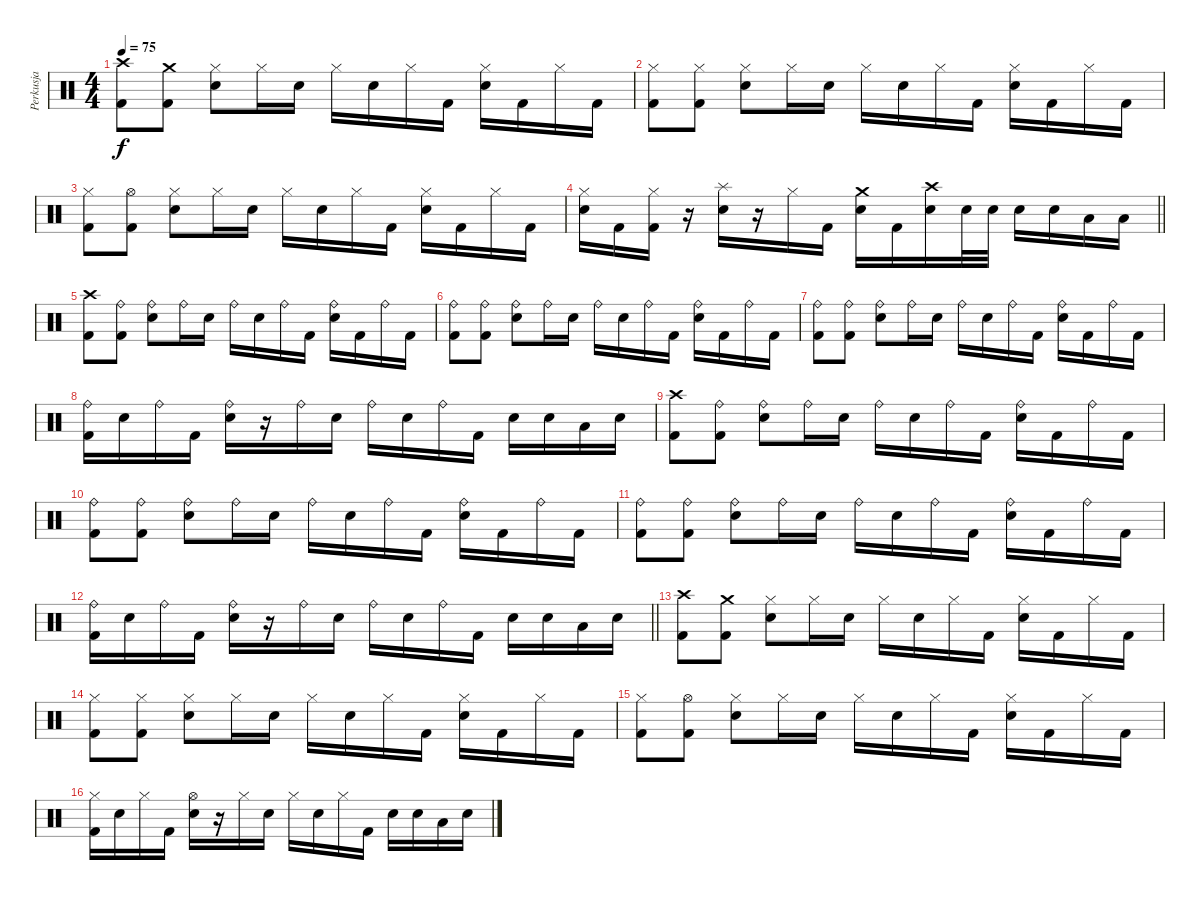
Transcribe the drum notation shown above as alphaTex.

\track ("Perkusja" "Perkusja") {instrument percussion}
\staff {score}
\articulation defaults
\ts (4 4)
\tempo 75
\clef neutral
\ks c
("Crash high (hit)" "Kick (hit) 2").8{dy f} ("Crash medium (hit)" "Kick (hit) 2").8 ("Hi-Hat (closed)" "Snare (hit) 2").8 "Hi-Hat (closed)".16 "Snare (hit) 2".16 "Hi-Hat (closed)".16 "Snare (hit) 2".16 "Hi-Hat (closed)".16 "Kick (hit) 2".16 ("Hi-Hat (closed)" "Snare (hit) 2").16 "Kick (hit) 2".16 "Hi-Hat (closed)".16 "Kick (hit) 2".16 |
("Hi-Hat (closed)" "Kick (hit) 2").8 ("Hi-Hat (closed)" "Kick (hit) 2").8 ("Hi-Hat (closed)" "Snare (hit) 2").8 "Hi-Hat (closed)".16 "Snare (hit) 2".16 "Hi-Hat (closed)".16 "Snare (hit) 2".16 "Hi-Hat (closed)".16 "Kick (hit) 2".16 ("Hi-Hat (closed)" "Snare (hit) 2").16 "Kick (hit) 2".16 "Hi-Hat (closed)".16 "Kick (hit) 2".16 |
("Hi-Hat (closed)" "Kick (hit) 2").8 ("Hi-Hat (open)" "Kick (hit) 2").8 ("Hi-Hat (closed)" "Snare (hit) 2").8 "Hi-Hat (closed)".16 "Snare (hit) 2".16 "Hi-Hat (closed)".16 "Snare (hit) 2".16 "Hi-Hat (closed)".16 "Kick (hit) 2".16 ("Hi-Hat (closed)" "Snare (hit) 2").16 "Kick (hit) 2".16 "Hi-Hat (closed)".16 "Kick (hit) 2".16 |
\barLineRight lightlight
("Hi-Hat (closed)" "Snare (hit) 2").16 "Kick (hit) 2".16 ("Hi-Hat (closed)" "Kick (hit) 2").16 r.16 ("Splash (hit)" "Snare (hit) 2").16 r.16 "Hi-Hat (closed)".16 "Kick (hit) 2".16 ("Crash medium (hit)" "Snare (hit) 2").16 "Kick (hit) 2".16 ("Crash high (hit)" "Snare (hit) 2").16 "Snare (hit) 2".32 "Snare (hit) 2".32 "Snare (hit) 2".16 "Snare (hit) 2".16 "Low Tom (hit)".16 "Low Tom (hit)".16 |
\section ("" "")
("Crash high (hit)" "Kick (hit) 2").8 ("Ride (bell)" "Kick (hit) 2").8 ("Ride (bell)" "Snare (hit) 2").8 "Ride (bell)".16 "Snare (hit) 2".16 "Ride (bell)".16 "Snare (hit) 2".16 "Ride (bell)".16 "Kick (hit) 2".16 ("Ride (bell)" "Snare (hit) 2").16 "Kick (hit) 2".16 "Ride (bell)".16 "Kick (hit) 2".16 |
("Ride (bell)" "Kick (hit) 2").8 ("Ride (bell)" "Kick (hit) 2").8 ("Ride (bell)" "Snare (hit) 2").8 "Ride (bell)".16 "Snare (hit) 2".16 "Ride (bell)".16 "Snare (hit) 2".16 "Ride (bell)".16 "Kick (hit) 2".16 ("Ride (bell)" "Snare (hit) 2").16 "Kick (hit) 2".16 "Ride (bell)".16 "Kick (hit) 2".16 |
("Ride (bell)" "Kick (hit) 2").8 ("Ride (bell)" "Kick (hit) 2").8 ("Ride (bell)" "Snare (hit) 2").8 "Ride (bell)".16 "Snare (hit) 2".16 "Ride (bell)".16 "Snare (hit) 2".16 "Ride (bell)".16 "Kick (hit) 2".16 ("Ride (bell)" "Snare (hit) 2").16 "Kick (hit) 2".16 "Ride (bell)".16 "Kick (hit) 2".16 |
("Ride (bell)" "Kick (hit) 2").16 "Snare (hit) 2".16 "Ride (bell)".16 "Kick (hit) 2".16 ("Ride (bell)" "Snare (hit) 2").16 r.16 "Ride (bell)".16 "Snare (hit) 2".16 "Ride (bell)".16 "Snare (hit) 2".16 "Ride (bell)".16 "Kick (hit) 2".16 "Snare (hit) 2".16 "Snare (hit) 2".16 "Low Tom (hit)".16 "Snare (hit) 2".16 |
("Crash high (hit)" "Kick (hit) 2").8 ("Ride (bell)" "Kick (hit) 2").8 ("Ride (bell)" "Snare (hit) 2").8 "Ride (bell)".16 "Snare (hit) 2".16 "Ride (bell)".16 "Snare (hit) 2".16 "Ride (bell)".16 "Kick (hit) 2".16 ("Ride (bell)" "Snare (hit) 2").16 "Kick (hit) 2".16 "Ride (bell)".16 "Kick (hit) 2".16 |
("Ride (bell)" "Kick (hit) 2").8 ("Ride (bell)" "Kick (hit) 2").8 ("Ride (bell)" "Snare (hit) 2").8 "Ride (bell)".16 "Snare (hit) 2".16 "Ride (bell)".16 "Snare (hit) 2".16 "Ride (bell)".16 "Kick (hit) 2".16 ("Ride (bell)" "Snare (hit) 2").16 "Kick (hit) 2".16 "Ride (bell)".16 "Kick (hit) 2".16 |
("Ride (bell)" "Kick (hit) 2").8 ("Ride (bell)" "Kick (hit) 2").8 ("Ride (bell)" "Snare (hit) 2").8 "Ride (bell)".16 "Snare (hit) 2".16 "Ride (bell)".16 "Snare (hit) 2".16 "Ride (bell)".16 "Kick (hit) 2".16 ("Ride (bell)" "Snare (hit) 2").16 "Kick (hit) 2".16 "Ride (bell)".16 "Kick (hit) 2".16 |
\barLineRight lightlight
("Ride (bell)" "Kick (hit) 2").16 "Snare (hit) 2".16 "Ride (bell)".16 "Kick (hit) 2".16 ("Ride (bell)" "Snare (hit) 2").16 r.16 "Ride (bell)".16 "Snare (hit) 2".16 "Ride (bell)".16 "Snare (hit) 2".16 "Ride (bell)".16 "Kick (hit) 2".16 "Snare (hit) 2".16 "Snare (hit) 2".16 "Low Tom (hit)".16 "Snare (hit) 2".16 |
\section ("" "")
("Crash high (hit)" "Kick (hit) 2").8 ("Crash medium (hit)" "Kick (hit) 2").8 ("Hi-Hat (closed)" "Snare (hit) 2").8 "Hi-Hat (closed)".16 "Snare (hit) 2".16 "Hi-Hat (closed)".16 "Snare (hit) 2".16 "Hi-Hat (closed)".16 "Kick (hit) 2".16 ("Hi-Hat (closed)" "Snare (hit) 2").16 "Kick (hit) 2".16 "Hi-Hat (closed)".16 "Kick (hit) 2".16 |
("Hi-Hat (closed)" "Kick (hit) 2").8 ("Hi-Hat (closed)" "Kick (hit) 2").8 ("Hi-Hat (closed)" "Snare (hit) 2").8 "Hi-Hat (closed)".16 "Snare (hit) 2".16 "Hi-Hat (closed)".16 "Snare (hit) 2".16 "Hi-Hat (closed)".16 "Kick (hit) 2".16 ("Hi-Hat (closed)" "Snare (hit) 2").16 "Kick (hit) 2".16 "Hi-Hat (closed)".16 "Kick (hit) 2".16 |
("Hi-Hat (closed)" "Kick (hit) 2").8 ("Hi-Hat (open)" "Kick (hit) 2").8 ("Hi-Hat (closed)" "Snare (hit) 2").8 "Hi-Hat (closed)".16 "Snare (hit) 2".16 "Hi-Hat (closed)".16 "Snare (hit) 2".16 "Hi-Hat (closed)".16 "Kick (hit) 2".16 ("Hi-Hat (closed)" "Snare (hit) 2").16 "Kick (hit) 2".16 "Hi-Hat (closed)".16 "Kick (hit) 2".16 |
("Hi-Hat (closed)" "Kick (hit) 2").16 "Snare (hit) 2".16 "Hi-Hat (closed)".16 "Kick (hit) 2".16 ("Hi-Hat (open)" "Snare (hit) 2").16 r.16 "Hi-Hat (closed)".16 "Snare (hit) 2".16 "Hi-Hat (closed)".16 "Snare (hit) 2".16 "Hi-Hat (closed)".16 "Kick (hit) 2".16 "Snare (hit) 2".16 "Snare (hit) 2".16 "Low Tom (hit)".16 "Snare (hit) 2".16
